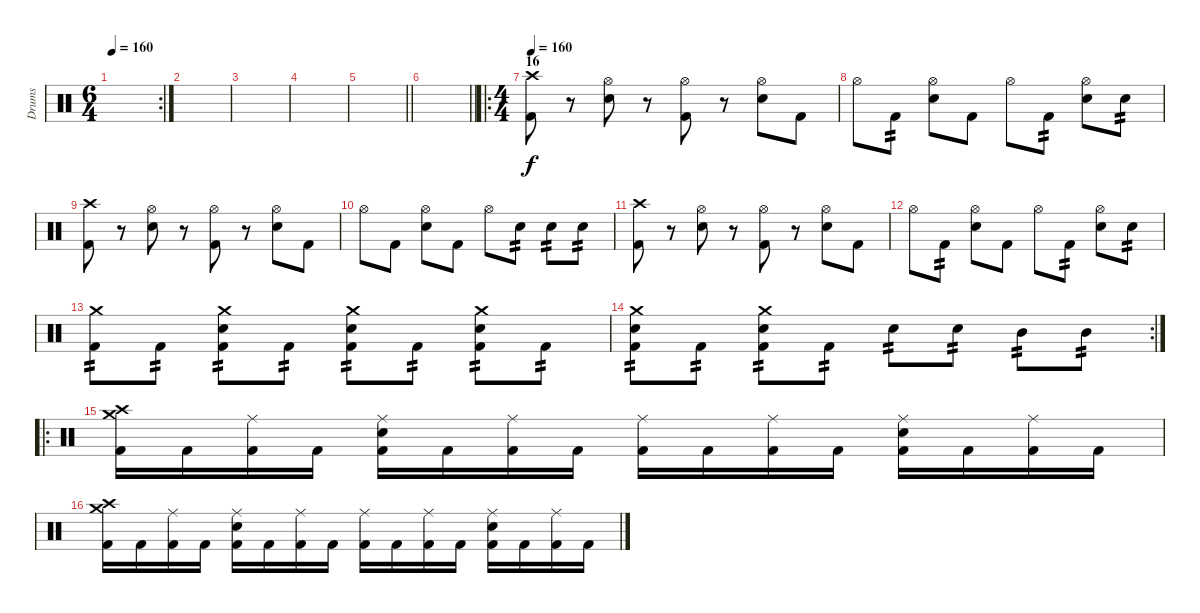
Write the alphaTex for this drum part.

\track ("Drums" "Drums") {instrument percussion}
\staff {score}
\articulation defaults
\rc 2
\ts (6 4)
\tempo 160
\clef neutral
\ks c
|
|
|
|
\barLineRight lightlight
|
\barLineRight lightlight
|
\ro
\ts (4 4)
\section ("" "16")
\tempo 160
("Crash high (hit)" "Kick (hit) 2").8 r.8 ("Hi-Hat (open)" "Electric Snare (hit)").8 r.8 ("Hi-Hat (open)" "Kick (hit) 2").8 r.8 ("Hi-Hat (open)" "Electric Snare (hit)").8 "Kick (hit) 2".8 |
"Hi-Hat (open)".8 "Kick (hit) 2".8{tp 2} ("Hi-Hat (open)" "Electric Snare (hit)").8 "Kick (hit) 2".8 "Hi-Hat (open)".8 "Kick (hit) 2".8{tp 2} ("Hi-Hat (open)" "Electric Snare (hit)").8 "Electric Snare (hit)".8{tp 2} |
("Crash high (hit)" "Kick (hit) 2").8 r.8 ("Hi-Hat (open)" "Electric Snare (hit)").8 r.8 ("Hi-Hat (open)" "Kick (hit) 2").8 r.8 ("Hi-Hat (open)" "Electric Snare (hit)").8 "Kick (hit) 2".8 |
"Hi-Hat (open)".8 "Kick (hit) 2".8 ("Hi-Hat (open)" "Electric Snare (hit)").8 "Kick (hit) 2".8 "Hi-Hat (open)".8 "Electric Snare (hit)".8{tp 2} "Electric Snare (hit)".8{tp 2} "Electric Snare (hit)".8{tp 2} |
("Crash high (hit)" "Kick (hit) 2").8 r.8 ("Hi-Hat (open)" "Electric Snare (hit)").8 r.8 ("Hi-Hat (open)" "Kick (hit) 2").8 r.8 ("Hi-Hat (open)" "Electric Snare (hit)").8 "Kick (hit) 2".8 |
"Hi-Hat (open)".8 "Kick (hit) 2".8{tp 2} ("Hi-Hat (open)" "Electric Snare (hit)").8 "Kick (hit) 2".8 "Hi-Hat (open)".8 "Kick (hit) 2".8{tp 2} ("Hi-Hat (open)" "Electric Snare (hit)").8 "Electric Snare (hit)".8{tp 2} |
("Crash medium (hit)" "Kick (hit) 2").8{tp 2} "Kick (hit) 2".8{tp 2} ("Crash medium (hit)" "Electric Snare (hit)" "Kick (hit) 2").8{tp 2} "Kick (hit) 2".8{tp 2} ("Crash medium (hit)" "Electric Snare (hit)" "Kick (hit) 2").8{tp 2} "Kick (hit) 2".8{tp 2} ("Crash medium (hit)" "Electric Snare (hit)" "Kick (hit) 2").8{tp 2} "Kick (hit) 2".8{tp 2} |
\rc 2
("Crash medium (hit)" "Electric Snare (hit)" "Kick (hit) 2").8{tp 2} "Kick (hit) 2".8{tp 2} ("Crash medium (hit)" "Electric Snare (hit)" "Kick (hit) 2").8{tp 2} "Kick (hit) 2".8{tp 2} "Electric Snare (hit)".8{tp 2} "Electric Snare (hit)".8{tp 2} "Mid Tom (hit)".8{tp 2} "Mid Tom (hit)".8{tp 2} |
\ro
("Crash high (hit)" "Crash medium (hit)" "Kick (hit) 2").16 "Kick (hit) 2".16 ("Ride (middle)" "Kick (hit) 2").16 "Kick (hit) 2".16 ("Ride (middle)" "Electric Snare (hit)" "Kick (hit) 2").16 "Kick (hit) 2".16 ("Ride (middle)" "Kick (hit) 2").16 "Kick (hit) 2".16 ("Ride (middle)" "Kick (hit) 2").16 "Kick (hit) 2".16 ("Ride (middle)" "Kick (hit) 2").16 "Kick (hit) 2".16 ("Ride (middle)" "Electric Snare (hit)" "Kick (hit) 2").16 "Kick (hit) 2".16 ("Ride (middle)" "Kick (hit) 2").16 "Kick (hit) 2".16 |
("Crash high (hit)" "Crash medium (hit)" "Kick (hit) 2").16 "Kick (hit) 2".16 ("Ride (middle)" "Kick (hit) 2").16 "Kick (hit) 2".16 ("Ride (middle)" "Electric Snare (hit)" "Kick (hit) 2").16 "Kick (hit) 2".16 ("Ride (middle)" "Kick (hit) 2").16 "Kick (hit) 2".16 ("Ride (middle)" "Kick (hit) 2").16 "Kick (hit) 2".16 ("Ride (middle)" "Kick (hit) 2").16 "Kick (hit) 2".16 ("Ride (middle)" "Electric Snare (hit)" "Kick (hit) 2").16 "Kick (hit) 2".16 ("Ride (middle)" "Kick (hit) 2").16 "Kick (hit) 2".16
